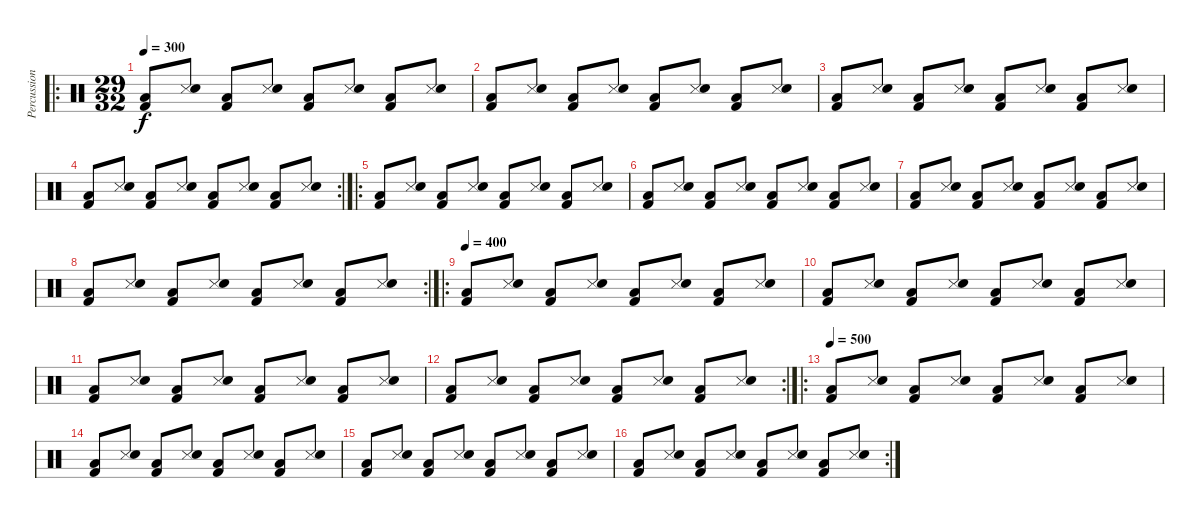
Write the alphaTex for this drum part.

\track ("Percussion" "Percussion") {instrument percussion}
\staff {score}
\articulation defaults
\ro
\ts (29 32)
\tempo 300
\clef neutral
\ks c
("Low Tom (hit)" "Kick (hit) 2").8{dy f} ("Snare (side stick) 3" "Electric Snare (hit)").8 ("Low Tom (hit)" "Kick (hit) 2").8 ("Snare (side stick) 3" "Electric Snare (hit)").8 ("Low Tom (hit)" "Kick (hit) 2").8 ("Snare (side stick) 3" "Electric Snare (hit)").8 ("Low Tom (hit)" "Kick (hit) 2").8 ("Snare (side stick) 3" "Electric Snare (hit)").8 |
("Low Tom (hit)" "Kick (hit) 2").8 ("Snare (side stick) 3" "Electric Snare (hit)").8 ("Low Tom (hit)" "Kick (hit) 2").8 ("Snare (side stick) 3" "Electric Snare (hit)").8 ("Low Tom (hit)" "Kick (hit) 2").8 ("Snare (side stick) 3" "Electric Snare (hit)").8 ("Low Tom (hit)" "Kick (hit) 2").8 ("Snare (side stick) 3" "Electric Snare (hit)").8 |
("Low Tom (hit)" "Kick (hit) 2").8 ("Snare (side stick) 3" "Electric Snare (hit)").8 ("Low Tom (hit)" "Kick (hit) 2").8 ("Snare (side stick) 3" "Electric Snare (hit)").8 ("Low Tom (hit)" "Kick (hit) 2").8 ("Snare (side stick) 3" "Electric Snare (hit)").8 ("Low Tom (hit)" "Kick (hit) 2").8 ("Snare (side stick) 3" "Electric Snare (hit)").8 |
\rc 2
("Low Tom (hit)" "Kick (hit) 2").8 ("Snare (side stick) 3" "Electric Snare (hit)").8 ("Low Tom (hit)" "Kick (hit) 2").8 ("Snare (side stick) 3" "Electric Snare (hit)").8 ("Low Tom (hit)" "Kick (hit) 2").8 ("Snare (side stick) 3" "Electric Snare (hit)").8 ("Low Tom (hit)" "Kick (hit) 2").8 ("Snare (side stick) 3" "Electric Snare (hit)").8 |
\ro
("Low Tom (hit)" "Kick (hit) 2").8 ("Snare (side stick) 3" "Electric Snare (hit)").8 ("Low Tom (hit)" "Kick (hit) 2").8 ("Snare (side stick) 3" "Electric Snare (hit)").8 ("Low Tom (hit)" "Kick (hit) 2").8 ("Snare (side stick) 3" "Electric Snare (hit)").8 ("Low Tom (hit)" "Kick (hit) 2").8 ("Snare (side stick) 3" "Electric Snare (hit)").8 |
("Low Tom (hit)" "Kick (hit) 2").8 ("Snare (side stick) 3" "Electric Snare (hit)").8 ("Low Tom (hit)" "Kick (hit) 2").8 ("Snare (side stick) 3" "Electric Snare (hit)").8 ("Low Tom (hit)" "Kick (hit) 2").8 ("Snare (side stick) 3" "Electric Snare (hit)").8 ("Low Tom (hit)" "Kick (hit) 2").8 ("Snare (side stick) 3" "Electric Snare (hit)").8 |
("Low Tom (hit)" "Kick (hit) 2").8 ("Snare (side stick) 3" "Electric Snare (hit)").8 ("Low Tom (hit)" "Kick (hit) 2").8 ("Snare (side stick) 3" "Electric Snare (hit)").8 ("Low Tom (hit)" "Kick (hit) 2").8 ("Snare (side stick) 3" "Electric Snare (hit)").8 ("Low Tom (hit)" "Kick (hit) 2").8 ("Snare (side stick) 3" "Electric Snare (hit)").8 |
\rc 2
("Low Tom (hit)" "Kick (hit) 2").8 ("Snare (side stick) 3" "Electric Snare (hit)").8 ("Low Tom (hit)" "Kick (hit) 2").8 ("Snare (side stick) 3" "Electric Snare (hit)").8 ("Low Tom (hit)" "Kick (hit) 2").8 ("Snare (side stick) 3" "Electric Snare (hit)").8 ("Low Tom (hit)" "Kick (hit) 2").8 ("Snare (side stick) 3" "Electric Snare (hit)").8 |
\ro
\tempo 400
("Low Tom (hit)" "Kick (hit) 2").8 ("Snare (side stick) 3" "Electric Snare (hit)").8 ("Low Tom (hit)" "Kick (hit) 2").8 ("Snare (side stick) 3" "Electric Snare (hit)").8 ("Low Tom (hit)" "Kick (hit) 2").8 ("Snare (side stick) 3" "Electric Snare (hit)").8 ("Low Tom (hit)" "Kick (hit) 2").8 ("Snare (side stick) 3" "Electric Snare (hit)").8 |
("Low Tom (hit)" "Kick (hit) 2").8 ("Snare (side stick) 3" "Electric Snare (hit)").8 ("Low Tom (hit)" "Kick (hit) 2").8 ("Snare (side stick) 3" "Electric Snare (hit)").8 ("Low Tom (hit)" "Kick (hit) 2").8 ("Snare (side stick) 3" "Electric Snare (hit)").8 ("Low Tom (hit)" "Kick (hit) 2").8 ("Snare (side stick) 3" "Electric Snare (hit)").8 |
("Low Tom (hit)" "Kick (hit) 2").8 ("Snare (side stick) 3" "Electric Snare (hit)").8 ("Low Tom (hit)" "Kick (hit) 2").8 ("Snare (side stick) 3" "Electric Snare (hit)").8 ("Low Tom (hit)" "Kick (hit) 2").8 ("Snare (side stick) 3" "Electric Snare (hit)").8 ("Low Tom (hit)" "Kick (hit) 2").8 ("Snare (side stick) 3" "Electric Snare (hit)").8 |
\rc 2
("Low Tom (hit)" "Kick (hit) 2").8 ("Snare (side stick) 3" "Electric Snare (hit)").8 ("Low Tom (hit)" "Kick (hit) 2").8 ("Snare (side stick) 3" "Electric Snare (hit)").8 ("Low Tom (hit)" "Kick (hit) 2").8 ("Snare (side stick) 3" "Electric Snare (hit)").8 ("Low Tom (hit)" "Kick (hit) 2").8 ("Snare (side stick) 3" "Electric Snare (hit)").8 |
\ro
\tempo 500
("Low Tom (hit)" "Kick (hit) 2").8 ("Snare (side stick) 3" "Electric Snare (hit)").8 ("Low Tom (hit)" "Kick (hit) 2").8 ("Snare (side stick) 3" "Electric Snare (hit)").8 ("Low Tom (hit)" "Kick (hit) 2").8 ("Snare (side stick) 3" "Electric Snare (hit)").8 ("Low Tom (hit)" "Kick (hit) 2").8 ("Snare (side stick) 3" "Electric Snare (hit)").8 |
("Low Tom (hit)" "Kick (hit) 2").8 ("Snare (side stick) 3" "Electric Snare (hit)").8 ("Low Tom (hit)" "Kick (hit) 2").8 ("Snare (side stick) 3" "Electric Snare (hit)").8 ("Low Tom (hit)" "Kick (hit) 2").8 ("Snare (side stick) 3" "Electric Snare (hit)").8 ("Low Tom (hit)" "Kick (hit) 2").8 ("Snare (side stick) 3" "Electric Snare (hit)").8 |
("Low Tom (hit)" "Kick (hit) 2").8 ("Snare (side stick) 3" "Electric Snare (hit)").8 ("Low Tom (hit)" "Kick (hit) 2").8 ("Snare (side stick) 3" "Electric Snare (hit)").8 ("Low Tom (hit)" "Kick (hit) 2").8 ("Snare (side stick) 3" "Electric Snare (hit)").8 ("Low Tom (hit)" "Kick (hit) 2").8 ("Snare (side stick) 3" "Electric Snare (hit)").8 |
\rc 2
("Low Tom (hit)" "Kick (hit) 2").8 ("Snare (side stick) 3" "Electric Snare (hit)").8 ("Low Tom (hit)" "Kick (hit) 2").8 ("Snare (side stick) 3" "Electric Snare (hit)").8 ("Low Tom (hit)" "Kick (hit) 2").8 ("Snare (side stick) 3" "Electric Snare (hit)").8 ("Low Tom (hit)" "Kick (hit) 2").8 ("Snare (side stick) 3" "Electric Snare (hit)").8
